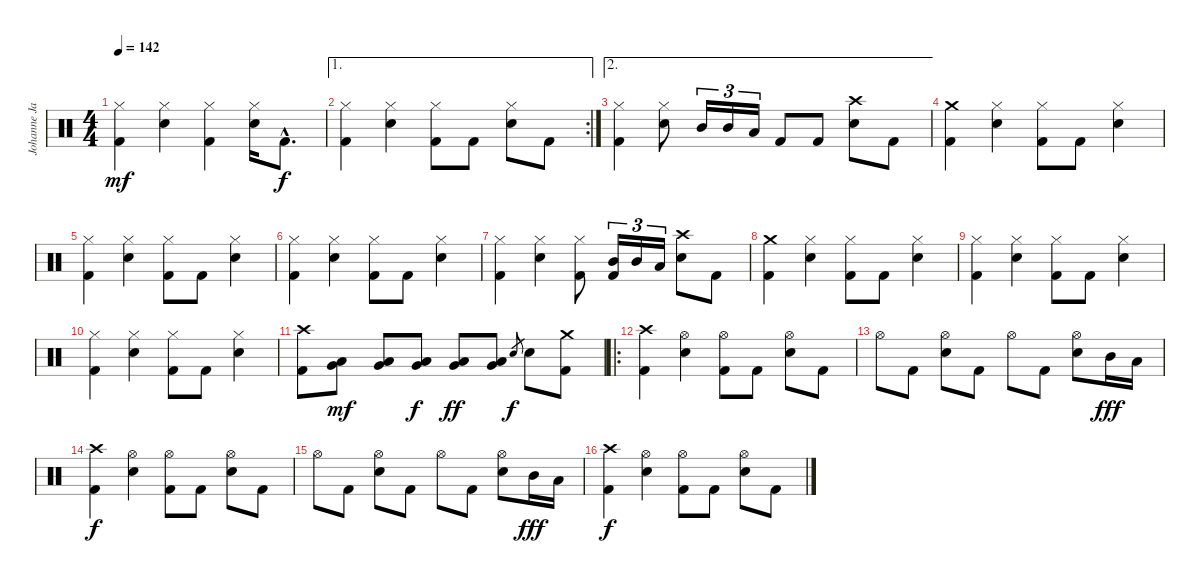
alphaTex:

\track ("Johanne James" "Johanne Ja") {instrument percussion}
\staff {score}
\articulation defaults
\ts (4 4)
\tempo 142
\clef neutral
\ks c
("Hi-Hat (closed)" "Kick (hit) 2").4{dy mf} ("Hi-Hat (closed)" "Snare (hit) 2").4 ("Hi-Hat (closed)" "Kick (hit) 2").4 ("Hi-Hat (closed)" "Snare (hit) 2").16 "Kick (hit) 2"{hac}.8{d dy f} |
\ae 1
\rc 2
("Hi-Hat (closed)" "Kick (hit) 2").4 ("Hi-Hat (closed)" "Snare (hit) 2").4 ("Hi-Hat (closed)" "Kick (hit) 2").8 "Kick (hit) 2".8 ("Hi-Hat (closed)" "Snare (hit) 2").8 "Kick (hit) 2".8 |
\ae 2
("Hi-Hat (closed)" "Kick (hit) 2").4 ("Hi-Hat (closed)" "Snare (hit) 2").8 "Mid Tom (hit)".16{tu (3 2)} "Mid Tom (hit)".16{tu (3 2)} "Low Tom (hit)".16{tu (3 2)} "Kick (hit) 2".8 "Kick (hit) 2".8 ("Crash high (hit)" "Snare (hit) 2").8 "Kick (hit) 2".8 |
("Crash medium (hit)" "Kick (hit) 2").4 ("Hi-Hat (closed)" "Snare (hit) 2").4 ("Hi-Hat (closed)" "Kick (hit) 2").8 "Kick (hit) 2".8 ("Hi-Hat (closed)" "Snare (hit) 2").4 |
("Hi-Hat (closed)" "Kick (hit) 2").4 ("Hi-Hat (closed)" "Snare (hit) 2").4 ("Hi-Hat (closed)" "Kick (hit) 2").8 "Kick (hit) 2".8 ("Hi-Hat (closed)" "Snare (hit) 2").4 |
("Hi-Hat (closed)" "Kick (hit) 2").4 ("Hi-Hat (closed)" "Snare (hit) 2").4 ("Hi-Hat (closed)" "Kick (hit) 2").8 "Kick (hit) 2".8 ("Hi-Hat (closed)" "Snare (hit) 2").4 |
("Hi-Hat (closed)" "Kick (hit) 2").4 ("Hi-Hat (closed)" "Snare (hit) 2").4 ("Hi-Hat (closed)" "Kick (hit) 2").8 ("Mid Tom (hit)" "Kick (hit) 2").16{tu (3 2)} "Mid Tom (hit)".16{tu (3 2)} "Low Tom (hit)".16{tu (3 2)} ("Crash high (hit)" "Snare (hit) 2").8 "Kick (hit) 2".8 |
("Crash medium (hit)" "Kick (hit) 2").4 ("Hi-Hat (closed)" "Snare (hit) 2").4 ("Hi-Hat (closed)" "Kick (hit) 2").8 "Kick (hit) 2".8 ("Hi-Hat (closed)" "Snare (hit) 2").4 |
("Hi-Hat (closed)" "Kick (hit) 2").4 ("Hi-Hat (closed)" "Snare (hit) 2").4 ("Hi-Hat (closed)" "Kick (hit) 2").8 "Kick (hit) 2".8 ("Hi-Hat (closed)" "Snare (hit) 2").4 |
("Hi-Hat (closed)" "Kick (hit) 2").4 ("Hi-Hat (closed)" "Snare (hit) 2").4 ("Hi-Hat (closed)" "Kick (hit) 2").8 "Kick (hit) 2".8 ("Hi-Hat (closed)" "Snare (hit) 2").4 |
("Crash high (hit)" "Kick (hit) 2").8 ("Low Tom (hit)" "Very Low Tom (hit)").8{dy mf} ("Low Tom (hit)" "Very Low Tom (hit)").8 ("Low Tom (hit)" "Very Low Tom (hit)").8{dy f} ("Low Tom (hit)" "Very Low Tom (hit)").8{dy ff} ("Low Tom (hit)" "Very Low Tom (hit)").8 "Snare (hit) 2".8{gr dy f} "Snare (hit) 2".8 ("Crash medium (hit)" "Kick (hit) 2").8 |
\ro
("Crash high (hit)" "Kick (hit) 2").4 ("Hi-Hat (open)" "Snare (hit) 2").4 ("Hi-Hat (open)" "Kick (hit) 2").8 "Kick (hit) 2".8 ("Hi-Hat (open)" "Snare (hit) 2").8 "Kick (hit) 2".8 |
"Hi-Hat (open)".8 "Kick (hit) 2".8 ("Hi-Hat (open)" "Snare (hit) 2").8 "Kick (hit) 2".8 "Hi-Hat (open)".8 "Kick (hit) 2".8 ("Hi-Hat (open)" "Snare (hit) 2").8 "Mid Tom (hit)".16{dy fff} "Low Tom (hit)".16 |
("Crash high (hit)" "Kick (hit) 2").4{dy f} ("Hi-Hat (open)" "Snare (hit) 2").4 ("Hi-Hat (open)" "Kick (hit) 2").8 "Kick (hit) 2".8 ("Hi-Hat (open)" "Snare (hit) 2").8 "Kick (hit) 2".8 |
"Hi-Hat (open)".8 "Kick (hit) 2".8 ("Hi-Hat (open)" "Snare (hit) 2").8 "Kick (hit) 2".8 "Hi-Hat (open)".8 "Kick (hit) 2".8 ("Hi-Hat (open)" "Snare (hit) 2").8 "Mid Tom (hit)".16{dy fff} "Low Tom (hit)".16 |
("Crash high (hit)" "Kick (hit) 2").4{dy f} ("Hi-Hat (open)" "Snare (hit) 2").4 ("Hi-Hat (open)" "Kick (hit) 2").8 "Kick (hit) 2".8 ("Hi-Hat (open)" "Snare (hit) 2").8 "Kick (hit) 2".8
